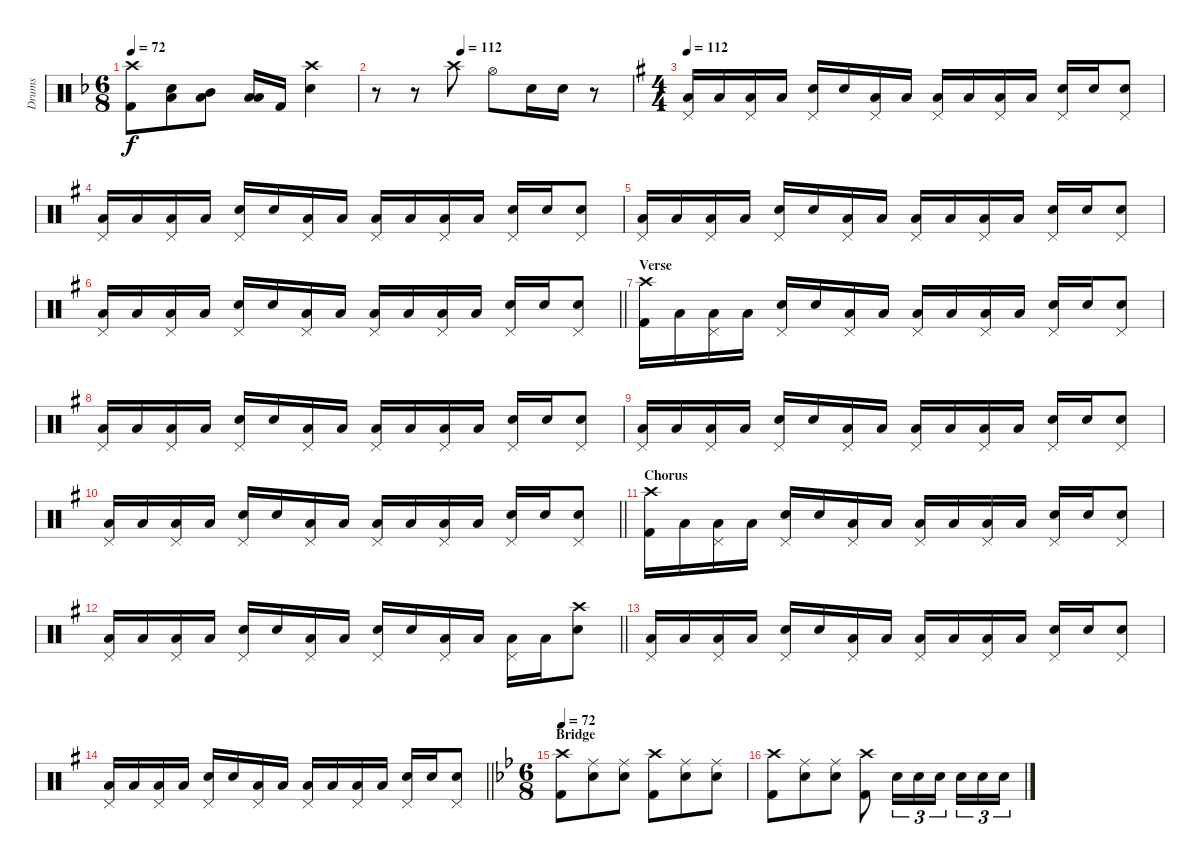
\track ("Drums" "Drums") {instrument percussion}
\staff {score}
\articulation defaults
\ts (6 8)
\tempo 72
\clef neutral
\ks f
("Crash high (hit)" "Kick (hit) 2").8{dy f} ("Low Floor Tom (hit)" "Electric Snare (hit)").8 ("Mid Tom (hit)" "Low Floor Tom (hit)").8 ("Low Tom (hit)" "Low Floor Tom (hit)").16 "Kick (hit) 2".16 ("Crash high (hit)" "Electric Snare (hit)").4 |
\tempo (112 0.3333333333333333)
r.8 r.8 "Crash high (hit)".8 "Hi-Hat (open)".8 "Electric Snare (hit)".16 "Electric Snare (hit)".16 r.8 |
\ts (4 4)
\tempo 112
\ks g
("Pedal Hi-Hat (hit)" "Low Floor Tom (hit)").16 "Low Floor Tom (hit)".16 ("Pedal Hi-Hat (hit)" "Low Floor Tom (hit)").16 "Low Floor Tom (hit)".16 ("Pedal Hi-Hat (hit)" "Electric Snare (hit)").16 "Electric Snare (hit)".16 ("Pedal Hi-Hat (hit)" "Low Floor Tom (hit)").16 "Low Floor Tom (hit)".16 ("Pedal Hi-Hat (hit)" "Low Floor Tom (hit)").16 "Low Floor Tom (hit)".16 ("Pedal Hi-Hat (hit)" "Low Floor Tom (hit)").16 "Low Floor Tom (hit)".16 ("Pedal Hi-Hat (hit)" "Electric Snare (hit)").16 "Electric Snare (hit)".16 ("Pedal Hi-Hat (hit)" "Electric Snare (hit)").8 |
("Pedal Hi-Hat (hit)" "Low Floor Tom (hit)").16 "Low Floor Tom (hit)".16 ("Pedal Hi-Hat (hit)" "Low Floor Tom (hit)").16 "Low Floor Tom (hit)".16 ("Pedal Hi-Hat (hit)" "Electric Snare (hit)").16 "Electric Snare (hit)".16 ("Pedal Hi-Hat (hit)" "Low Floor Tom (hit)").16 "Low Floor Tom (hit)".16 ("Pedal Hi-Hat (hit)" "Low Floor Tom (hit)").16 "Low Floor Tom (hit)".16 ("Pedal Hi-Hat (hit)" "Low Floor Tom (hit)").16 "Low Floor Tom (hit)".16 ("Pedal Hi-Hat (hit)" "Electric Snare (hit)").16 "Electric Snare (hit)".16 ("Pedal Hi-Hat (hit)" "Electric Snare (hit)").8 |
("Pedal Hi-Hat (hit)" "Low Floor Tom (hit)").16 "Low Floor Tom (hit)".16 ("Pedal Hi-Hat (hit)" "Low Floor Tom (hit)").16 "Low Floor Tom (hit)".16 ("Pedal Hi-Hat (hit)" "Electric Snare (hit)").16 "Electric Snare (hit)".16 ("Pedal Hi-Hat (hit)" "Low Floor Tom (hit)").16 "Low Floor Tom (hit)".16 ("Pedal Hi-Hat (hit)" "Low Floor Tom (hit)").16 "Low Floor Tom (hit)".16 ("Pedal Hi-Hat (hit)" "Low Floor Tom (hit)").16 "Low Floor Tom (hit)".16 ("Pedal Hi-Hat (hit)" "Electric Snare (hit)").16 "Electric Snare (hit)".16 ("Pedal Hi-Hat (hit)" "Electric Snare (hit)").8 |
\barLineRight lightlight
("Pedal Hi-Hat (hit)" "Low Floor Tom (hit)").16 "Low Floor Tom (hit)".16 ("Pedal Hi-Hat (hit)" "Low Floor Tom (hit)").16 "Low Floor Tom (hit)".16 ("Pedal Hi-Hat (hit)" "Electric Snare (hit)").16 "Electric Snare (hit)".16 ("Pedal Hi-Hat (hit)" "Low Floor Tom (hit)").16 "Low Floor Tom (hit)".16 ("Pedal Hi-Hat (hit)" "Low Floor Tom (hit)").16 "Low Floor Tom (hit)".16 ("Pedal Hi-Hat (hit)" "Low Floor Tom (hit)").16 "Low Floor Tom (hit)".16 ("Pedal Hi-Hat (hit)" "Electric Snare (hit)").16 "Electric Snare (hit)".16 ("Pedal Hi-Hat (hit)" "Electric Snare (hit)").8 |
\section ("" "Verse")
("Crash high (hit)" "Kick (hit) 2").16 "Low Floor Tom (hit)".16 ("Pedal Hi-Hat (hit)" "Low Floor Tom (hit)").16 "Low Floor Tom (hit)".16 ("Pedal Hi-Hat (hit)" "Electric Snare (hit)").16 "Electric Snare (hit)".16 ("Pedal Hi-Hat (hit)" "Low Floor Tom (hit)").16 "Low Floor Tom (hit)".16 ("Pedal Hi-Hat (hit)" "Low Floor Tom (hit)").16 "Low Floor Tom (hit)".16 ("Pedal Hi-Hat (hit)" "Low Floor Tom (hit)").16 "Low Floor Tom (hit)".16 ("Pedal Hi-Hat (hit)" "Electric Snare (hit)").16 "Electric Snare (hit)".16 ("Pedal Hi-Hat (hit)" "Electric Snare (hit)").8 |
("Pedal Hi-Hat (hit)" "Low Floor Tom (hit)").16 "Low Floor Tom (hit)".16 ("Pedal Hi-Hat (hit)" "Low Floor Tom (hit)").16 "Low Floor Tom (hit)".16 ("Pedal Hi-Hat (hit)" "Electric Snare (hit)").16 "Electric Snare (hit)".16 ("Pedal Hi-Hat (hit)" "Low Floor Tom (hit)").16 "Low Floor Tom (hit)".16 ("Pedal Hi-Hat (hit)" "Low Floor Tom (hit)").16 "Low Floor Tom (hit)".16 ("Pedal Hi-Hat (hit)" "Low Floor Tom (hit)").16 "Low Floor Tom (hit)".16 ("Pedal Hi-Hat (hit)" "Electric Snare (hit)").16 "Electric Snare (hit)".16 ("Pedal Hi-Hat (hit)" "Electric Snare (hit)").8 |
("Pedal Hi-Hat (hit)" "Low Floor Tom (hit)").16 "Low Floor Tom (hit)".16 ("Pedal Hi-Hat (hit)" "Low Floor Tom (hit)").16 "Low Floor Tom (hit)".16 ("Pedal Hi-Hat (hit)" "Electric Snare (hit)").16 "Electric Snare (hit)".16 ("Pedal Hi-Hat (hit)" "Low Floor Tom (hit)").16 "Low Floor Tom (hit)".16 ("Pedal Hi-Hat (hit)" "Low Floor Tom (hit)").16 "Low Floor Tom (hit)".16 ("Pedal Hi-Hat (hit)" "Low Floor Tom (hit)").16 "Low Floor Tom (hit)".16 ("Pedal Hi-Hat (hit)" "Electric Snare (hit)").16 "Electric Snare (hit)".16 ("Pedal Hi-Hat (hit)" "Electric Snare (hit)").8 |
\barLineRight lightlight
("Pedal Hi-Hat (hit)" "Low Floor Tom (hit)").16 "Low Floor Tom (hit)".16 ("Pedal Hi-Hat (hit)" "Low Floor Tom (hit)").16 "Low Floor Tom (hit)".16 ("Pedal Hi-Hat (hit)" "Electric Snare (hit)").16 "Electric Snare (hit)".16 ("Pedal Hi-Hat (hit)" "Low Floor Tom (hit)").16 "Low Floor Tom (hit)".16 ("Pedal Hi-Hat (hit)" "Low Floor Tom (hit)").16 "Low Floor Tom (hit)".16 ("Pedal Hi-Hat (hit)" "Low Floor Tom (hit)").16 "Low Floor Tom (hit)".16 ("Pedal Hi-Hat (hit)" "Electric Snare (hit)").16 "Electric Snare (hit)".16 ("Pedal Hi-Hat (hit)" "Electric Snare (hit)").8 |
\section ("" "Chorus")
("Crash high (hit)" "Kick (hit) 2").16 "Low Floor Tom (hit)".16 ("Pedal Hi-Hat (hit)" "Low Floor Tom (hit)").16 "Low Floor Tom (hit)".16 ("Pedal Hi-Hat (hit)" "Electric Snare (hit)").16 "Electric Snare (hit)".16 ("Pedal Hi-Hat (hit)" "Low Floor Tom (hit)").16 "Low Floor Tom (hit)".16 ("Pedal Hi-Hat (hit)" "Low Floor Tom (hit)").16 "Low Floor Tom (hit)".16 ("Pedal Hi-Hat (hit)" "Low Floor Tom (hit)").16 "Low Floor Tom (hit)".16 ("Pedal Hi-Hat (hit)" "Electric Snare (hit)").16 "Electric Snare (hit)".16 ("Pedal Hi-Hat (hit)" "Electric Snare (hit)").8 |
\barLineRight lightlight
("Pedal Hi-Hat (hit)" "Low Floor Tom (hit)").16 "Low Floor Tom (hit)".16 ("Pedal Hi-Hat (hit)" "Low Floor Tom (hit)").16 "Low Floor Tom (hit)".16 ("Pedal Hi-Hat (hit)" "Electric Snare (hit)").16 "Electric Snare (hit)".16 ("Pedal Hi-Hat (hit)" "Low Floor Tom (hit)").16 "Low Floor Tom (hit)".16 ("Pedal Hi-Hat (hit)" "Electric Snare (hit)").16 "Electric Snare (hit)".16 ("Pedal Hi-Hat (hit)" "Low Floor Tom (hit)").16 "Low Floor Tom (hit)".16 ("Pedal Hi-Hat (hit)" "Low Floor Tom (hit)").16 "Low Floor Tom (hit)".16 ("Crash high (hit)" "Electric Snare (hit)").8 |
("Pedal Hi-Hat (hit)" "Low Floor Tom (hit)").16 "Low Floor Tom (hit)".16 ("Pedal Hi-Hat (hit)" "Low Floor Tom (hit)").16 "Low Floor Tom (hit)".16 ("Pedal Hi-Hat (hit)" "Electric Snare (hit)").16 "Electric Snare (hit)".16 ("Pedal Hi-Hat (hit)" "Low Floor Tom (hit)").16 "Low Floor Tom (hit)".16 ("Pedal Hi-Hat (hit)" "Low Floor Tom (hit)").16 "Low Floor Tom (hit)".16 ("Pedal Hi-Hat (hit)" "Low Floor Tom (hit)").16 "Low Floor Tom (hit)".16 ("Pedal Hi-Hat (hit)" "Electric Snare (hit)").16 "Electric Snare (hit)".16 ("Pedal Hi-Hat (hit)" "Electric Snare (hit)").8 |
\barLineRight lightlight
("Pedal Hi-Hat (hit)" "Low Floor Tom (hit)").16 "Low Floor Tom (hit)".16 ("Pedal Hi-Hat (hit)" "Low Floor Tom (hit)").16 "Low Floor Tom (hit)".16 ("Pedal Hi-Hat (hit)" "Electric Snare (hit)").16 "Electric Snare (hit)".16 ("Pedal Hi-Hat (hit)" "Low Floor Tom (hit)").16 "Low Floor Tom (hit)".16 ("Pedal Hi-Hat (hit)" "Low Floor Tom (hit)").16 "Low Floor Tom (hit)".16 ("Pedal Hi-Hat (hit)" "Low Floor Tom (hit)").16 "Low Floor Tom (hit)".16 ("Pedal Hi-Hat (hit)" "Electric Snare (hit)").16 "Electric Snare (hit)".16 ("Pedal Hi-Hat (hit)" "Electric Snare (hit)").8 |
\ts (6 8)
\section ("" "Bridge")
\tempo 72
\ks bb
("Crash high (hit)" "Kick (hit) 2").8 ("Ride (middle)" "Electric Snare (hit)").8 ("Ride (middle)" "Electric Snare (hit)").8 ("Crash high (hit)" "Kick (hit) 2").8 ("Ride (middle)" "Electric Snare (hit)").8 ("Ride (middle)" "Electric Snare (hit)").8 |
("Crash high (hit)" "Kick (hit) 2").8 ("Ride (middle)" "Electric Snare (hit)").8 ("Ride (middle)" "Electric Snare (hit)").8 ("Crash high (hit)" "Kick (hit) 2").8 "Electric Snare (hit)".16{tu (3 2)} "Electric Snare (hit)".16{tu (3 2)} "Electric Snare (hit)".16{tu (3 2) beam splitsecondary} "Electric Snare (hit)".16{tu (3 2)} "Electric Snare (hit)".16{tu (3 2)} "Electric Snare (hit)".16{tu (3 2)}
